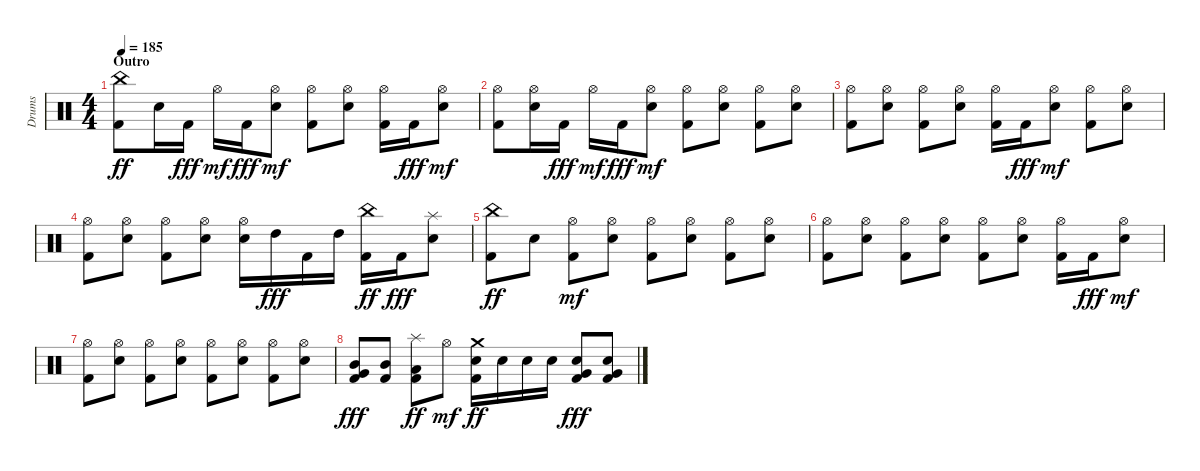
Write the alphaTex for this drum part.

\track ("Drums" "Drums") {instrument percussion}
\staff {score}
\articulation defaults
\ts (4 4)
\section ("" "Outro")
\tempo 185
\clef neutral
\ks c
("Kick (hit) 2" "China (hit)").8{dy ff} "Snare (hit) 2".16 "Kick (hit) 2".16{dy fff} "Hi-Hat (open)".16{dy mf} "Kick (hit) 2".16{dy fff} ("Snare (hit) 2" "Hi-Hat (open)").8{dy mf} ("Kick (hit) 2" "Hi-Hat (open)").8 ("Snare (hit) 2" "Hi-Hat (open)").8 ("Kick (hit) 2" "Hi-Hat (open)").16 "Kick (hit) 2".16{dy fff} ("Snare (hit) 2" "Hi-Hat (open)").8{dy mf} |
("Kick (hit) 2" "Hi-Hat (open)").8 ("Snare (hit) 2" "Hi-Hat (open)").16 "Kick (hit) 2".16{dy fff} "Hi-Hat (open)".16{dy mf} "Kick (hit) 2".16{dy fff} ("Snare (hit) 2" "Hi-Hat (open)").8{dy mf} ("Kick (hit) 2" "Hi-Hat (open)").8 ("Snare (hit) 2" "Hi-Hat (open)").8 ("Kick (hit) 2" "Hi-Hat (open)").8 ("Snare (hit) 2" "Hi-Hat (open)").8 |
("Kick (hit) 2" "Hi-Hat (open)").8 ("Snare (hit) 2" "Hi-Hat (open)").8 ("Kick (hit) 2" "Hi-Hat (open)").8 ("Snare (hit) 2" "Hi-Hat (open)").8 ("Kick (hit) 2" "Hi-Hat (open)").16 "Kick (hit) 2".16{dy fff} ("Snare (hit) 2" "Hi-Hat (open)").8{dy mf} ("Kick (hit) 2" "Hi-Hat (open)").8 ("Snare (hit) 2" "Hi-Hat (open)").8 |
("Kick (hit) 2" "Hi-Hat (open)").8 ("Snare (hit) 2" "Hi-Hat (open)").8 ("Kick (hit) 2" "Hi-Hat (open)").8 ("Snare (hit) 2" "Hi-Hat (open)").8 ("Snare (hit) 2" "Hi-Hat (open)").16 "High Tom (hit)".16{dy fff} "Kick (hit) 2".16 "High Tom (hit)".16 ("Kick (hit) 2" "China (hit)").16{dy ff} "Kick (hit) 2".16{dy fff} ("Snare (hit) 2" "Splash (hit)").8 |
("Kick (hit) 2" "China (hit)").8{dy ff} "Snare (hit) 2".8 ("Kick (hit) 2" "Hi-Hat (open)").8{dy mf} ("Snare (hit) 2" "Hi-Hat (open)").8 ("Kick (hit) 2" "Hi-Hat (open)").8 ("Snare (hit) 2" "Hi-Hat (open)").8 ("Kick (hit) 2" "Hi-Hat (open)").8 ("Snare (hit) 2" "Hi-Hat (open)").8 |
("Kick (hit) 2" "Hi-Hat (open)").8 ("Snare (hit) 2" "Hi-Hat (open)").8 ("Kick (hit) 2" "Hi-Hat (open)").8 ("Snare (hit) 2" "Hi-Hat (open)").8 ("Kick (hit) 2" "Hi-Hat (open)").8 ("Snare (hit) 2" "Hi-Hat (open)").8 ("Kick (hit) 2" "Hi-Hat (open)").16 "Kick (hit) 2".16{dy fff} ("Snare (hit) 2" "Hi-Hat (open)").8{dy mf} |
("Kick (hit) 2" "Hi-Hat (open)").8 ("Snare (hit) 2" "Hi-Hat (open)").8 ("Kick (hit) 2" "Hi-Hat (open)").8 ("Snare (hit) 2" "Hi-Hat (open)").8 ("Kick (hit) 2" "Hi-Hat (open)").8 ("Snare (hit) 2" "Hi-Hat (open)").8 ("Kick (hit) 2" "Hi-Hat (open)").8 ("Snare (hit) 2" "Hi-Hat (open)").8 |
("Kick (hit) 2" "Mid Tom (hit)" "Very Low Tom (hit)").8{dy fff} ("Kick (hit) 2" "Mid Tom (hit)").8 ("Kick (hit) 2" "Low Tom (hit)" "Splash (hit)").8{dy ff} "Hi-Hat (open)".8{dy mf} ("Kick (hit) 2" "Snare (hit) 2" "Crash medium (hit)").16{dy ff} "Snare (hit) 2".16 "Snare (hit) 2".16 "Snare (hit) 2".16 ("Kick (hit) 2" "Snare (hit) 2" "Very Low Tom (hit)").8{dy fff} ("Kick (hit) 2" "Snare (hit) 2" "Very Low Tom (hit)").8
